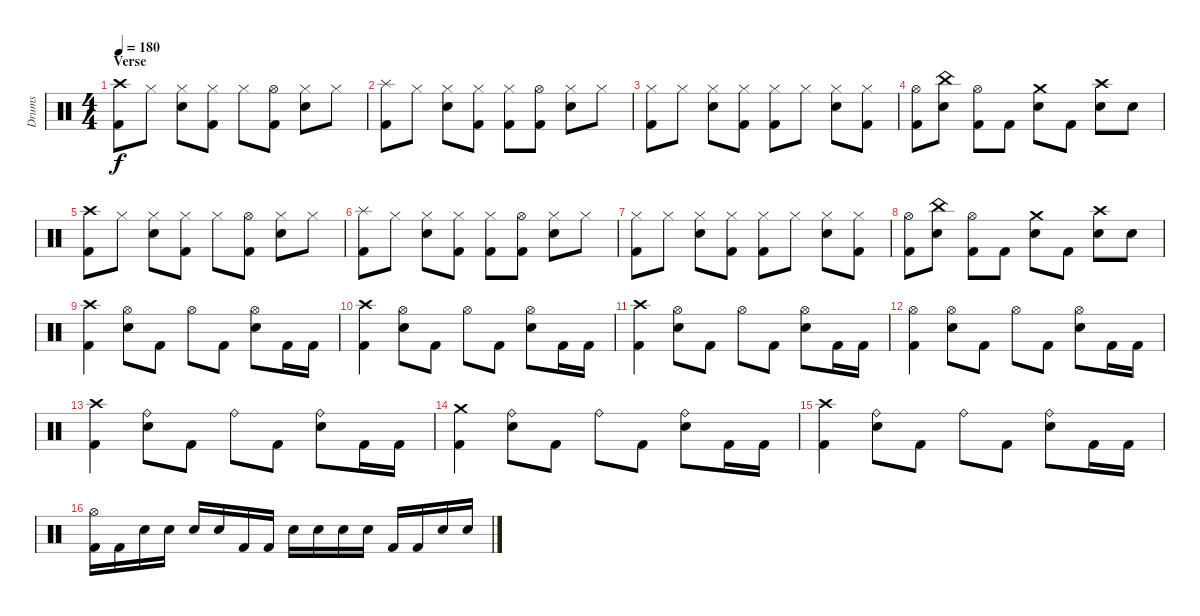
\track ("Drums" "Drums") {instrument percussion}
\staff {score}
\articulation defaults
\ts (4 4)
\section ("" "Verse")
\tempo 180
\clef neutral
\ks c
("Crash high (hit)" "Kick (hit) 2").8{dy f} "Hi-Hat (closed)".8 ("Hi-Hat (closed)" "Electric Snare (hit)").8 ("Hi-Hat (closed)" "Kick (hit) 2").8 "Hi-Hat (closed)".8 ("Hi-Hat (open)" "Kick (hit) 2").8 ("Hi-Hat (closed)" "Electric Snare (hit)").8 "Hi-Hat (closed)".8 |
("Splash (hit)" "Kick (hit) 2").8 "Hi-Hat (closed)".8 ("Hi-Hat (closed)" "Electric Snare (hit)").8 ("Hi-Hat (closed)" "Kick (hit) 2").8 ("Hi-Hat (closed)" "Kick (hit) 2").8 ("Hi-Hat (open)" "Kick (hit) 2").8 ("Hi-Hat (closed)" "Electric Snare (hit)").8 "Hi-Hat (closed)".8 |
("Hi-Hat (closed)" "Kick (hit) 2").8 "Hi-Hat (closed)".8 ("Hi-Hat (closed)" "Electric Snare (hit)").8 ("Hi-Hat (closed)" "Kick (hit) 2").8 ("Hi-Hat (closed)" "Kick (hit) 2").8 "Hi-Hat (closed)".8 ("Hi-Hat (closed)" "Electric Snare (hit)").8 ("Hi-Hat (closed)" "Kick (hit) 2").8 |
("Hi-Hat (open)" "Kick (hit) 2").8 ("China (hit)" "Electric Snare (hit)").8 ("Hi-Hat (open)" "Kick (hit) 2").8 "Kick (hit) 2".8 ("Crash medium (hit)" "Electric Snare (hit)").8 "Kick (hit) 2".8 ("Crash high (hit)" "Electric Snare (hit)").8 "Electric Snare (hit)".8 |
("Crash high (hit)" "Kick (hit) 2").8 "Hi-Hat (closed)".8 ("Hi-Hat (closed)" "Electric Snare (hit)").8 ("Hi-Hat (closed)" "Kick (hit) 2").8 "Hi-Hat (closed)".8 ("Hi-Hat (open)" "Kick (hit) 2").8 ("Hi-Hat (closed)" "Electric Snare (hit)").8 "Hi-Hat (closed)".8 |
("Splash (hit)" "Kick (hit) 2").8 "Hi-Hat (closed)".8 ("Hi-Hat (closed)" "Electric Snare (hit)").8 ("Hi-Hat (closed)" "Kick (hit) 2").8 ("Hi-Hat (closed)" "Kick (hit) 2").8 ("Hi-Hat (open)" "Kick (hit) 2").8 ("Hi-Hat (closed)" "Electric Snare (hit)").8 "Hi-Hat (closed)".8 |
("Hi-Hat (closed)" "Kick (hit) 2").8 "Hi-Hat (closed)".8 ("Hi-Hat (closed)" "Electric Snare (hit)").8 ("Hi-Hat (closed)" "Kick (hit) 2").8 ("Hi-Hat (closed)" "Kick (hit) 2").8 "Hi-Hat (closed)".8 ("Hi-Hat (closed)" "Electric Snare (hit)").8 ("Hi-Hat (closed)" "Kick (hit) 2").8 |
("Hi-Hat (open)" "Kick (hit) 2").8 ("China (hit)" "Electric Snare (hit)").8 ("Hi-Hat (open)" "Kick (hit) 2").8 "Kick (hit) 2".8 ("Crash medium (hit)" "Electric Snare (hit)").8 "Kick (hit) 2".8 ("Crash high (hit)" "Electric Snare (hit)").8 "Electric Snare (hit)".8 |
("Crash high (hit)" "Kick (hit) 2").4 ("Hi-Hat (open)" "Electric Snare (hit)").8 "Kick (hit) 2".8 "Hi-Hat (open)".8 "Kick (hit) 2".8 ("Hi-Hat (open)" "Electric Snare (hit)").8 "Kick (hit) 2".16 "Kick (hit) 2".16 |
("Crash high (hit)" "Kick (hit) 2").4 ("Hi-Hat (open)" "Electric Snare (hit)").8 "Kick (hit) 2".8 "Hi-Hat (open)".8 "Kick (hit) 2".8 ("Hi-Hat (open)" "Electric Snare (hit)").8 "Kick (hit) 2".16 "Kick (hit) 2".16 |
("Crash high (hit)" "Kick (hit) 2").4 ("Hi-Hat (open)" "Electric Snare (hit)").8 "Kick (hit) 2".8 "Hi-Hat (open)".8 "Kick (hit) 2".8 ("Hi-Hat (open)" "Electric Snare (hit)").8 "Kick (hit) 2".16 "Kick (hit) 2".16 |
("Hi-Hat (open)" "Kick (hit) 2").4 ("Hi-Hat (open)" "Electric Snare (hit)").8 "Kick (hit) 2".8 "Hi-Hat (open)".8 "Kick (hit) 2".8 ("Hi-Hat (open)" "Electric Snare (hit)").8 "Kick (hit) 2".16 "Kick (hit) 2".16 |
("Crash high (hit)" "Kick (hit) 2").4 ("Ride (bell)" "Electric Snare (hit)").8 "Kick (hit) 2".8 "Ride (bell)".8 "Kick (hit) 2".8 ("Ride (bell)" "Electric Snare (hit)").8 "Kick (hit) 2".16 "Kick (hit) 2".16 |
("Crash medium (hit)" "Kick (hit) 2").4 ("Ride (bell)" "Electric Snare (hit)").8 "Kick (hit) 2".8 "Ride (bell)".8 "Kick (hit) 2".8 ("Ride (bell)" "Electric Snare (hit)").8 "Kick (hit) 2".16 "Kick (hit) 2".16 |
("Crash high (hit)" "Kick (hit) 2").4 ("Ride (bell)" "Electric Snare (hit)").8 "Kick (hit) 2".8 "Ride (bell)".8 "Kick (hit) 2".8 ("Ride (bell)" "Electric Snare (hit)").8 "Kick (hit) 2".16 "Kick (hit) 2".16 |
("Hi-Hat (open)" "Kick (hit) 2").16 "Kick (hit) 2".16 "Electric Snare (hit)".16 "Electric Snare (hit)".16 "Electric Snare (hit)".16 "Electric Snare (hit)".16 "Kick (hit) 2".16 "Kick (hit) 2".16 "Electric Snare (hit)".16 "Electric Snare (hit)".16 "Electric Snare (hit)".16 "Electric Snare (hit)".16 "Kick (hit) 2".16 "Kick (hit) 2".16 "Electric Snare (hit)".16 "Electric Snare (hit)".16
